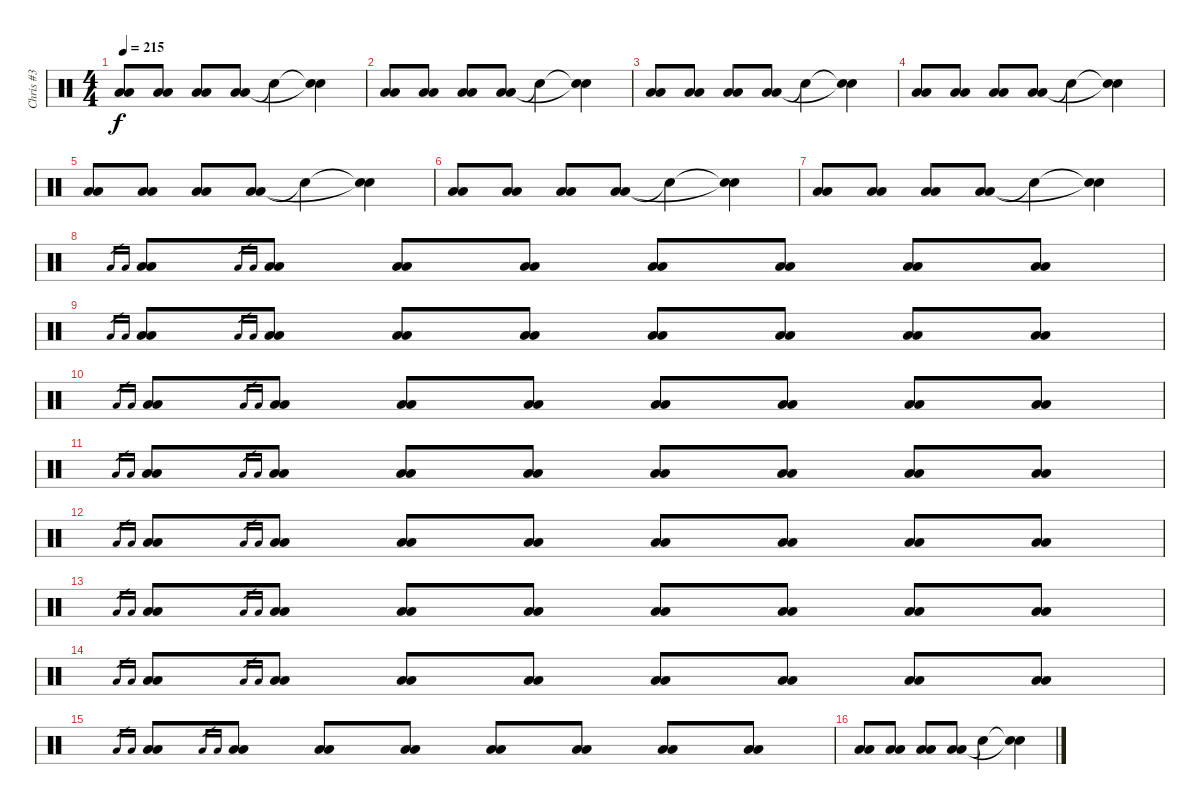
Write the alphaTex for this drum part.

\track ("Chris #3" "Chris #3") {instrument percussion}
\staff {score}
\articulation defaults
\ts (4 4)
\tempo 215
\clef neutral
\ks c
("Low Floor Tom (hit)" "Low Floor Tom (hit)").8{dy f} ("Low Floor Tom (hit)" "Low Floor Tom (hit)").8 ("Low Floor Tom (hit)" "Low Floor Tom (hit)").8 ("Low Floor Tom (hit)" "Low Floor Tom (hit)").8 "Snare (hit)"{t}.4 ("Snare (hit)"{t} "Snare (hit)"{t}).4 |
("Low Floor Tom (hit)" "Low Floor Tom (hit)").8 ("Low Floor Tom (hit)" "Low Floor Tom (hit)").8 ("Low Floor Tom (hit)" "Low Floor Tom (hit)").8 ("Low Floor Tom (hit)" "Low Floor Tom (hit)").8 "Snare (hit)"{t}.4 ("Snare (hit)"{t} "Snare (hit)"{t}).4 |
("Low Floor Tom (hit)" "Low Floor Tom (hit)").8 ("Low Floor Tom (hit)" "Low Floor Tom (hit)").8 ("Low Floor Tom (hit)" "Low Floor Tom (hit)").8 ("Low Floor Tom (hit)" "Low Floor Tom (hit)").8 "Snare (hit)"{t}.4 ("Snare (hit)"{t} "Snare (hit)"{t}).4 |
("Low Floor Tom (hit)" "Low Floor Tom (hit)").8 ("Low Floor Tom (hit)" "Low Floor Tom (hit)").8 ("Low Floor Tom (hit)" "Low Floor Tom (hit)").8 ("Low Floor Tom (hit)" "Low Floor Tom (hit)").8 "Snare (hit)"{t}.4 ("Snare (hit)"{t} "Snare (hit)"{t}).4 |
("Low Floor Tom (hit)" "Low Floor Tom (hit)").8 ("Low Floor Tom (hit)" "Low Floor Tom (hit)").8 ("Low Floor Tom (hit)" "Low Floor Tom (hit)").8 ("Low Floor Tom (hit)" "Low Floor Tom (hit)").8 "Snare (hit)"{t}.4 ("Snare (hit)"{t} "Snare (hit)"{t}).4 |
("Low Floor Tom (hit)" "Low Floor Tom (hit)").8 ("Low Floor Tom (hit)" "Low Floor Tom (hit)").8 ("Low Floor Tom (hit)" "Low Floor Tom (hit)").8 ("Low Floor Tom (hit)" "Low Floor Tom (hit)").8 "Snare (hit)"{t}.4 ("Snare (hit)"{t} "Snare (hit)"{t}).4 |
("Low Floor Tom (hit)" "Low Floor Tom (hit)").8 ("Low Floor Tom (hit)" "Low Floor Tom (hit)").8 ("Low Floor Tom (hit)" "Low Floor Tom (hit)").8 ("Low Floor Tom (hit)" "Low Floor Tom (hit)").8 "Snare (hit)"{t}.4 ("Snare (hit)"{t} "Snare (hit)"{t}).4 |
"Low Floor Tom (hit)"{sl}.16{gr} "Low Floor Tom (hit)"{sl}.16{gr} ("Low Floor Tom (hit)" "Low Floor Tom (hit)").8 "Low Floor Tom (hit)"{sl}.16{gr} "Low Floor Tom (hit)"{sl}.16{gr} ("Low Floor Tom (hit)" "Low Floor Tom (hit)").8 ("Low Floor Tom (hit)" "Low Floor Tom (hit)").8 ("Low Floor Tom (hit)" "Low Floor Tom (hit)").8 ("Low Floor Tom (hit)" "Low Floor Tom (hit)").8 ("Low Floor Tom (hit)" "Low Floor Tom (hit)").8 ("Low Floor Tom (hit)" "Low Floor Tom (hit)").8 ("Low Floor Tom (hit)" "Low Floor Tom (hit)").8 |
"Low Floor Tom (hit)"{sl}.16{gr} "Low Floor Tom (hit)"{sl}.16{gr} ("Low Floor Tom (hit)" "Low Floor Tom (hit)").8 "Low Floor Tom (hit)"{sl}.16{gr} "Low Floor Tom (hit)"{sl}.16{gr} ("Low Floor Tom (hit)" "Low Floor Tom (hit)").8 ("Low Floor Tom (hit)" "Low Floor Tom (hit)").8 ("Low Floor Tom (hit)" "Low Floor Tom (hit)").8 ("Low Floor Tom (hit)" "Low Floor Tom (hit)").8 ("Low Floor Tom (hit)" "Low Floor Tom (hit)").8 ("Low Floor Tom (hit)" "Low Floor Tom (hit)").8 ("Low Floor Tom (hit)" "Low Floor Tom (hit)").8 |
"Low Floor Tom (hit)"{sl}.16{gr} "Low Floor Tom (hit)"{sl}.16{gr} ("Low Floor Tom (hit)" "Low Floor Tom (hit)").8 "Low Floor Tom (hit)"{sl}.16{gr} "Low Floor Tom (hit)"{sl}.16{gr} ("Low Floor Tom (hit)" "Low Floor Tom (hit)").8 ("Low Floor Tom (hit)" "Low Floor Tom (hit)").8 ("Low Floor Tom (hit)" "Low Floor Tom (hit)").8 ("Low Floor Tom (hit)" "Low Floor Tom (hit)").8 ("Low Floor Tom (hit)" "Low Floor Tom (hit)").8 ("Low Floor Tom (hit)" "Low Floor Tom (hit)").8 ("Low Floor Tom (hit)" "Low Floor Tom (hit)").8 |
"Low Floor Tom (hit)"{sl}.16{gr} "Low Floor Tom (hit)"{sl}.16{gr} ("Low Floor Tom (hit)" "Low Floor Tom (hit)").8 "Low Floor Tom (hit)"{sl}.16{gr} "Low Floor Tom (hit)"{sl}.16{gr} ("Low Floor Tom (hit)" "Low Floor Tom (hit)").8 ("Low Floor Tom (hit)" "Low Floor Tom (hit)").8 ("Low Floor Tom (hit)" "Low Floor Tom (hit)").8 ("Low Floor Tom (hit)" "Low Floor Tom (hit)").8 ("Low Floor Tom (hit)" "Low Floor Tom (hit)").8 ("Low Floor Tom (hit)" "Low Floor Tom (hit)").8 ("Low Floor Tom (hit)" "Low Floor Tom (hit)").8 |
"Low Floor Tom (hit)"{sl}.16{gr} "Low Floor Tom (hit)"{sl}.16{gr} ("Low Floor Tom (hit)" "Low Floor Tom (hit)").8 "Low Floor Tom (hit)"{sl}.16{gr} "Low Floor Tom (hit)"{sl}.16{gr} ("Low Floor Tom (hit)" "Low Floor Tom (hit)").8 ("Low Floor Tom (hit)" "Low Floor Tom (hit)").8 ("Low Floor Tom (hit)" "Low Floor Tom (hit)").8 ("Low Floor Tom (hit)" "Low Floor Tom (hit)").8 ("Low Floor Tom (hit)" "Low Floor Tom (hit)").8 ("Low Floor Tom (hit)" "Low Floor Tom (hit)").8 ("Low Floor Tom (hit)" "Low Floor Tom (hit)").8 |
"Low Floor Tom (hit)"{sl}.16{gr} "Low Floor Tom (hit)"{sl}.16{gr} ("Low Floor Tom (hit)" "Low Floor Tom (hit)").8 "Low Floor Tom (hit)"{sl}.16{gr} "Low Floor Tom (hit)"{sl}.16{gr} ("Low Floor Tom (hit)" "Low Floor Tom (hit)").8 ("Low Floor Tom (hit)" "Low Floor Tom (hit)").8 ("Low Floor Tom (hit)" "Low Floor Tom (hit)").8 ("Low Floor Tom (hit)" "Low Floor Tom (hit)").8 ("Low Floor Tom (hit)" "Low Floor Tom (hit)").8 ("Low Floor Tom (hit)" "Low Floor Tom (hit)").8 ("Low Floor Tom (hit)" "Low Floor Tom (hit)").8 |
"Low Floor Tom (hit)"{sl}.16{gr} "Low Floor Tom (hit)"{sl}.16{gr} ("Low Floor Tom (hit)" "Low Floor Tom (hit)").8 "Low Floor Tom (hit)"{sl}.16{gr} "Low Floor Tom (hit)"{sl}.16{gr} ("Low Floor Tom (hit)" "Low Floor Tom (hit)").8 ("Low Floor Tom (hit)" "Low Floor Tom (hit)").8 ("Low Floor Tom (hit)" "Low Floor Tom (hit)").8 ("Low Floor Tom (hit)" "Low Floor Tom (hit)").8 ("Low Floor Tom (hit)" "Low Floor Tom (hit)").8 ("Low Floor Tom (hit)" "Low Floor Tom (hit)").8 ("Low Floor Tom (hit)" "Low Floor Tom (hit)").8 |
"Low Floor Tom (hit)"{sl}.16{gr} "Low Floor Tom (hit)"{sl}.16{gr} ("Low Floor Tom (hit)" "Low Floor Tom (hit)").8 "Low Floor Tom (hit)"{sl}.16{gr} "Low Floor Tom (hit)"{sl}.16{gr} ("Low Floor Tom (hit)" "Low Floor Tom (hit)").8 ("Low Floor Tom (hit)" "Low Floor Tom (hit)").8 ("Low Floor Tom (hit)" "Low Floor Tom (hit)").8 ("Low Floor Tom (hit)" "Low Floor Tom (hit)").8 ("Low Floor Tom (hit)" "Low Floor Tom (hit)").8 ("Low Floor Tom (hit)" "Low Floor Tom (hit)").8 ("Low Floor Tom (hit)" "Low Floor Tom (hit)").8 |
("Low Floor Tom (hit)" "Low Floor Tom (hit)").8 ("Low Floor Tom (hit)" "Low Floor Tom (hit)").8 ("Low Floor Tom (hit)" "Low Floor Tom (hit)").8 ("Low Floor Tom (hit)" "Low Floor Tom (hit)").8 "Snare (hit)"{t}.4 ("Snare (hit)"{t} "Snare (hit)"{t}).4
